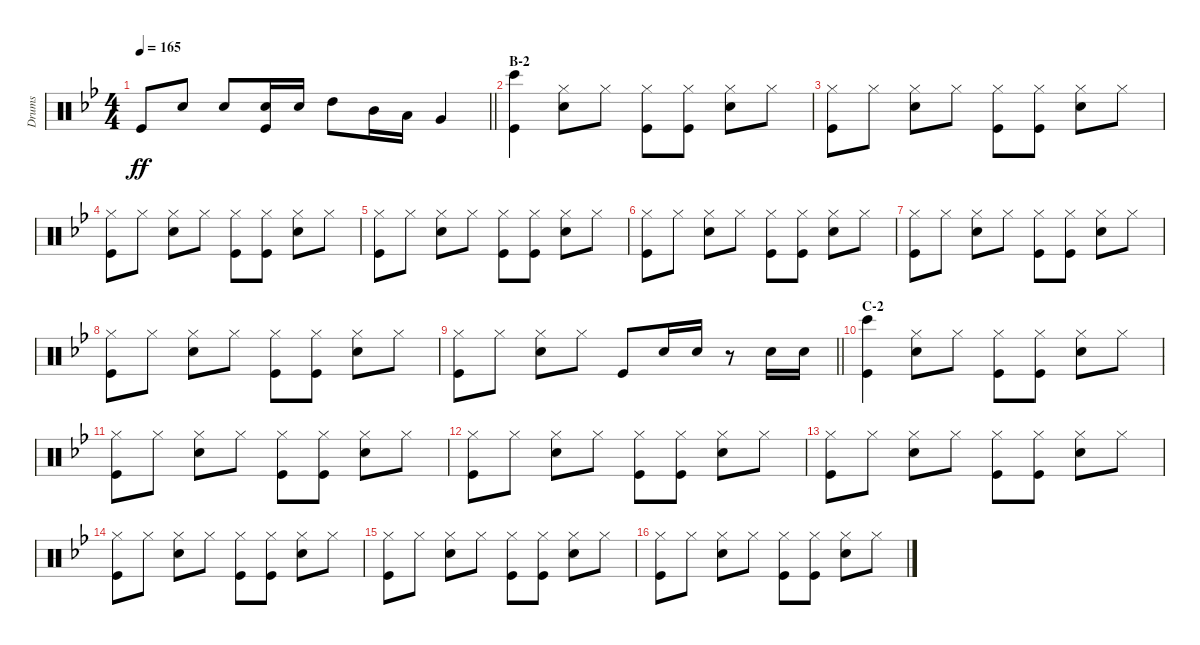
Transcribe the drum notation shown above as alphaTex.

\track ("Drums" "Drums") {instrument percussion}
\staff {score}
\articulation defaults
\ts (4 4)
\tempo 165
\clef neutral
\barLineRight lightlight
\ks bb "Kick (hit)".8{dy ff} "Snare (hit) 2".8 "Snare (hit) 2".8
("Snare (hit) 2" "Kick (hit)").16 "Snare (hit) 2".16 "High Tom (hit)".8 "Mid Tom (hit)".16 "Low Tom (hit)".16 "Very Low Tom (hit)".4 |
\section ("" "B-2")
("Kick (hit)" "Bongo High (hit)").4 ("Hi-Hat (closed)" "Snare (hit) 2").8 "Hi-Hat (closed)".8 ("Hi-Hat (closed)" "Kick (hit)").8 ("Hi-Hat (closed)" "Kick (hit)").8 ("Hi-Hat (closed)" "Snare (hit) 2").8 "Hi-Hat (closed)".8 |
("Hi-Hat (closed)" "Kick (hit)").8 "Hi-Hat (closed)".8 ("Hi-Hat (closed)" "Snare (hit) 2").8 "Hi-Hat (closed)".8 ("Hi-Hat (closed)" "Kick (hit)").8 ("Hi-Hat (closed)" "Kick (hit)").8 ("Hi-Hat (closed)" "Snare (hit) 2").8 "Hi-Hat (closed)".8 |
("Hi-Hat (closed)" "Kick (hit)").8 "Hi-Hat (closed)".8 ("Hi-Hat (closed)" "Snare (hit) 2").8 "Hi-Hat (closed)".8 ("Hi-Hat (closed)" "Kick (hit)").8 ("Hi-Hat (closed)" "Kick (hit)").8 ("Hi-Hat (closed)" "Snare (hit) 2").8 "Hi-Hat (closed)".8 |
("Hi-Hat (closed)" "Kick (hit)").8 "Hi-Hat (closed)".8 ("Hi-Hat (closed)" "Snare (hit) 2").8 "Hi-Hat (closed)".8 ("Hi-Hat (closed)" "Kick (hit)").8 ("Hi-Hat (closed)" "Kick (hit)").8 ("Hi-Hat (closed)" "Snare (hit) 2").8 "Hi-Hat (closed)".8 |
("Hi-Hat (closed)" "Kick (hit)").8 "Hi-Hat (closed)".8 ("Hi-Hat (closed)" "Snare (hit) 2").8 "Hi-Hat (closed)".8 ("Hi-Hat (closed)" "Kick (hit)").8 ("Hi-Hat (closed)" "Kick (hit)").8 ("Hi-Hat (closed)" "Snare (hit) 2").8 "Hi-Hat (closed)".8 |
("Hi-Hat (closed)" "Kick (hit)").8 "Hi-Hat (closed)".8 ("Hi-Hat (closed)" "Snare (hit) 2").8 "Hi-Hat (closed)".8 ("Hi-Hat (closed)" "Kick (hit)").8 ("Hi-Hat (closed)" "Kick (hit)").8 ("Hi-Hat (closed)" "Snare (hit) 2").8 "Hi-Hat (closed)".8 |
("Hi-Hat (closed)" "Kick (hit)").8 "Hi-Hat (closed)".8 ("Hi-Hat (closed)" "Snare (hit) 2").8 "Hi-Hat (closed)".8 ("Hi-Hat (closed)" "Kick (hit)").8 ("Hi-Hat (closed)" "Kick (hit)").8 ("Hi-Hat (closed)" "Snare (hit) 2").8 "Hi-Hat (closed)".8 |
\barLineRight lightlight
("Hi-Hat (closed)" "Kick (hit)").8 "Hi-Hat (closed)".8 ("Hi-Hat (closed)" "Snare (hit) 2").8 "Hi-Hat (closed)".8 "Kick (hit)".8 "Snare (hit) 2".16 "Snare (hit) 2".16 r.8 "Snare (hit) 2".16 "Snare (hit) 2".16 |
\section ("" "C-2")
("Kick (hit)" "Bongo High (hit)").4 ("Hi-Hat (closed)" "Snare (hit) 2").8 "Hi-Hat (closed)".8 ("Hi-Hat (closed)" "Kick (hit)").8 ("Hi-Hat (closed)" "Kick (hit)").8 ("Hi-Hat (closed)" "Snare (hit) 2").8 "Hi-Hat (closed)".8 |
("Hi-Hat (closed)" "Kick (hit)").8 "Hi-Hat (closed)".8 ("Hi-Hat (closed)" "Snare (hit) 2").8 "Hi-Hat (closed)".8 ("Hi-Hat (closed)" "Kick (hit)").8 ("Hi-Hat (closed)" "Kick (hit)").8 ("Hi-Hat (closed)" "Snare (hit) 2").8 "Hi-Hat (closed)".8 |
("Hi-Hat (closed)" "Kick (hit)").8 "Hi-Hat (closed)".8 ("Hi-Hat (closed)" "Snare (hit) 2").8 "Hi-Hat (closed)".8 ("Hi-Hat (closed)" "Kick (hit)").8 ("Hi-Hat (closed)" "Kick (hit)").8 ("Hi-Hat (closed)" "Snare (hit) 2").8 "Hi-Hat (closed)".8 |
("Hi-Hat (closed)" "Kick (hit)").8 "Hi-Hat (closed)".8 ("Hi-Hat (closed)" "Snare (hit) 2").8 "Hi-Hat (closed)".8 ("Hi-Hat (closed)" "Kick (hit)").8 ("Hi-Hat (closed)" "Kick (hit)").8 ("Hi-Hat (closed)" "Snare (hit) 2").8 "Hi-Hat (closed)".8 |
("Hi-Hat (closed)" "Kick (hit)").8 "Hi-Hat (closed)".8 ("Hi-Hat (closed)" "Snare (hit) 2").8 "Hi-Hat (closed)".8 ("Hi-Hat (closed)" "Kick (hit)").8 ("Hi-Hat (closed)" "Kick (hit)").8 ("Hi-Hat (closed)" "Snare (hit) 2").8 "Hi-Hat (closed)".8 |
("Hi-Hat (closed)" "Kick (hit)").8 "Hi-Hat (closed)".8 ("Hi-Hat (closed)" "Snare (hit) 2").8 "Hi-Hat (closed)".8 ("Hi-Hat (closed)" "Kick (hit)").8 ("Hi-Hat (closed)" "Kick (hit)").8 ("Hi-Hat (closed)" "Snare (hit) 2").8 "Hi-Hat (closed)".8 |
("Hi-Hat (closed)" "Kick (hit)").8 "Hi-Hat (closed)".8 ("Hi-Hat (closed)" "Snare (hit) 2").8 "Hi-Hat (closed)".8 ("Hi-Hat (closed)" "Kick (hit)").8 ("Hi-Hat (closed)" "Kick (hit)").8 ("Hi-Hat (closed)" "Snare (hit) 2").8 "Hi-Hat (closed)".8
